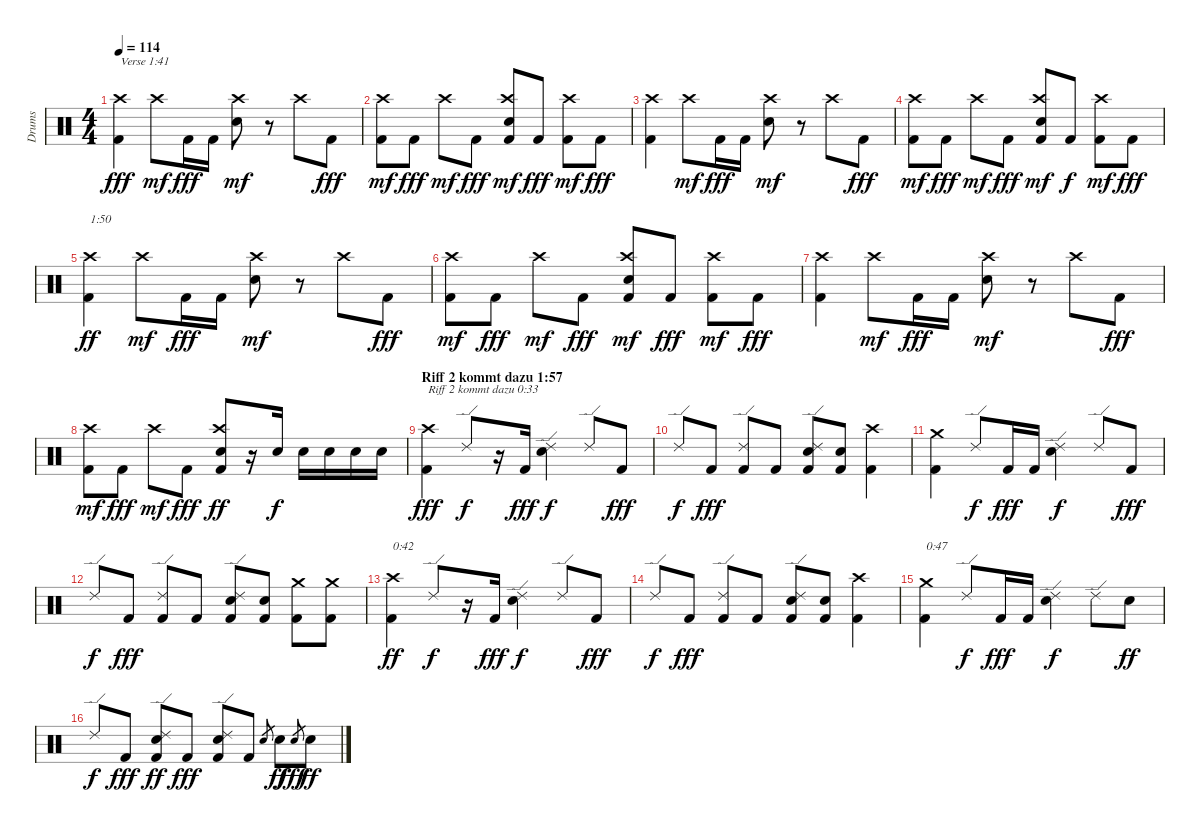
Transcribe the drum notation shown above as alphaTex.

\track ("Drums" "Drums") {instrument percussion}
\staff {score}
\articulation defaults
\ts (4 4)
\tempo 114
\clef neutral
\ks c
("Kick (hit) 2" "Crash high (hit)").4{txt "Verse 1:41" dy fff} "Crash high (hit)".8{dy mf} "Kick (hit) 2".16{dy fff} "Kick (hit) 2".16 ("Electric Snare (hit)" "Crash high (hit)").8{dy mf} r.8 "Crash high (hit)".8 "Kick (hit) 2".8{dy fff} |
("Kick (hit) 2" "Crash high (hit)").8{dy mf} "Kick (hit) 2".8{dy fff} "Crash high (hit)".8{dy mf} "Kick (hit) 2".8{dy fff} ("Kick (hit) 2" "Electric Snare (hit)" "Crash high (hit)").8{dy mf} "Kick (hit) 2".8{dy fff} ("Kick (hit) 2" "Crash high (hit)").8{dy mf} "Kick (hit) 2".8{dy fff} |
("Kick (hit) 2" "Crash high (hit)").4 "Crash high (hit)".8{dy mf} "Kick (hit) 2".16{dy fff} "Kick (hit) 2".16 ("Electric Snare (hit)" "Crash high (hit)").8{dy mf} r.8 "Crash high (hit)".8 "Kick (hit) 2".8{dy fff} |
("Kick (hit) 2" "Crash high (hit)").8{dy mf} "Kick (hit) 2".8{dy fff} "Crash high (hit)".8{dy mf} "Kick (hit) 2".8{dy fff} ("Kick (hit) 2" "Electric Snare (hit)" "Crash high (hit)").8{dy mf} "Kick (hit) 2".8{dy f} ("Kick (hit) 2" "Crash high (hit)").8{dy mf} "Kick (hit) 2".8{dy fff} |
("Kick (hit) 2" "Crash high (hit)").4{txt "1:50" dy ff} "Crash high (hit)".8{dy mf} "Kick (hit) 2".16{dy fff} "Kick (hit) 2".16 ("Electric Snare (hit)" "Crash high (hit)").8{dy mf} r.8 "Crash high (hit)".8 "Kick (hit) 2".8{dy fff} |
("Kick (hit) 2" "Crash high (hit)").8{dy mf} "Kick (hit) 2".8{dy fff} "Crash high (hit)".8{dy mf} "Kick (hit) 2".8{dy fff} ("Kick (hit) 2" "Electric Snare (hit)" "Crash high (hit)").8{dy mf} "Kick (hit) 2".8{dy fff} ("Kick (hit) 2" "Crash high (hit)").8{dy mf} "Kick (hit) 2".8{dy fff} |
("Kick (hit) 2" "Crash high (hit)").4 "Crash high (hit)".8{dy mf} "Kick (hit) 2".16{dy fff} "Kick (hit) 2".16 ("Electric Snare (hit)" "Crash high (hit)").8{dy mf} r.8 "Crash high (hit)".8 "Kick (hit) 2".8{dy fff} |
("Kick (hit) 2" "Crash high (hit)").8{dy mf} "Kick (hit) 2".8{dy fff} "Crash high (hit)".8{dy mf} "Kick (hit) 2".8{dy fff} ("Kick (hit) 2" "Electric Snare (hit)" "Crash high (hit)").8{dy ff} r.16 "Electric Snare (hit)".16{dy f} "Electric Snare (hit)".16 "Electric Snare (hit)".16 "Electric Snare (hit)".16 "Electric Snare (hit)".16 |
\section ("" "Riff 2 kommt dazu 1:57")
("Kick (hit) 2" "Crash high (hit)").4{txt "Riff 2 kommt dazu 0:33" dy fff} "Ride (edge) 2".8{dy f} r.16 "Kick (hit) 2".16{dy fff} ("Electric Snare (hit)" "Ride (edge) 2").4{dy f} "Ride (edge) 2".8 "Kick (hit) 2".8{dy fff} |
"Ride (edge) 2".8{dy f} "Kick (hit) 2".8{dy fff} ("Kick (hit) 2" "Ride (edge) 2").8 "Kick (hit) 2".8 ("Kick (hit) 2" "Electric Snare (hit)" "Ride (edge) 2").8 ("Kick (hit) 2" "Electric Snare (hit)").8 ("Kick (hit) 2" "Crash high (hit)").4 |
("Kick (hit) 2" "Crash medium (hit)").4 "Ride (edge) 2".8{dy f} "Kick (hit) 2".16{dy fff} "Kick (hit) 2".16 ("Electric Snare (hit)" "Ride (edge) 2").4{dy f} "Ride (edge) 2".8 "Kick (hit) 2".8{dy fff} |
"Ride (edge) 2".8{dy f} "Kick (hit) 2".8{dy fff} ("Kick (hit) 2" "Ride (edge) 2").8 "Kick (hit) 2".8 ("Kick (hit) 2" "Electric Snare (hit)" "Ride (edge) 2").8 ("Kick (hit) 2" "Electric Snare (hit)").8 ("Kick (hit) 2" "Crash medium (hit)").8 ("Kick (hit) 2" "Crash medium (hit)").8 |
("Kick (hit) 2" "Crash high (hit)").4{txt "0:42" dy ff} "Ride (edge) 2".8{dy f} r.16 "Kick (hit) 2".16{dy fff} ("Electric Snare (hit)" "Ride (edge) 2").4{dy f} "Ride (edge) 2".8 "Kick (hit) 2".8{dy fff} |
"Ride (edge) 2".8{dy f} "Kick (hit) 2".8{dy fff} ("Kick (hit) 2" "Ride (edge) 2").8 "Kick (hit) 2".8 ("Kick (hit) 2" "Electric Snare (hit)" "Ride (edge) 2").8 ("Kick (hit) 2" "Electric Snare (hit)").8 ("Kick (hit) 2" "Crash high (hit)").4 |
("Kick (hit) 2" "Crash medium (hit)").4{txt "0:47"} "Ride (edge) 2".8{dy f} "Kick (hit) 2".16{dy fff} "Kick (hit) 2".16 ("Electric Snare (hit)" "Ride (edge) 2").4{dy f} "Ride (edge) 2".8 "Electric Snare (hit)".8{dy ff} |
"Ride (edge) 2".8{dy f} "Kick (hit) 2".8{dy fff} ("Kick (hit) 2" "Electric Snare (hit)" "Ride (edge) 2").8{dy ff} "Kick (hit) 2".8{dy fff} ("Kick (hit) 2" "Electric Snare (hit)" "Ride (edge) 2").8 "Kick (hit) 2".8 "Electric Snare (hit)".8{gr} "Electric Snare (hit)".8{dy ff} "Electric Snare (hit)".8{gr dy fff} "Electric Snare (hit)".8{dy ff}
